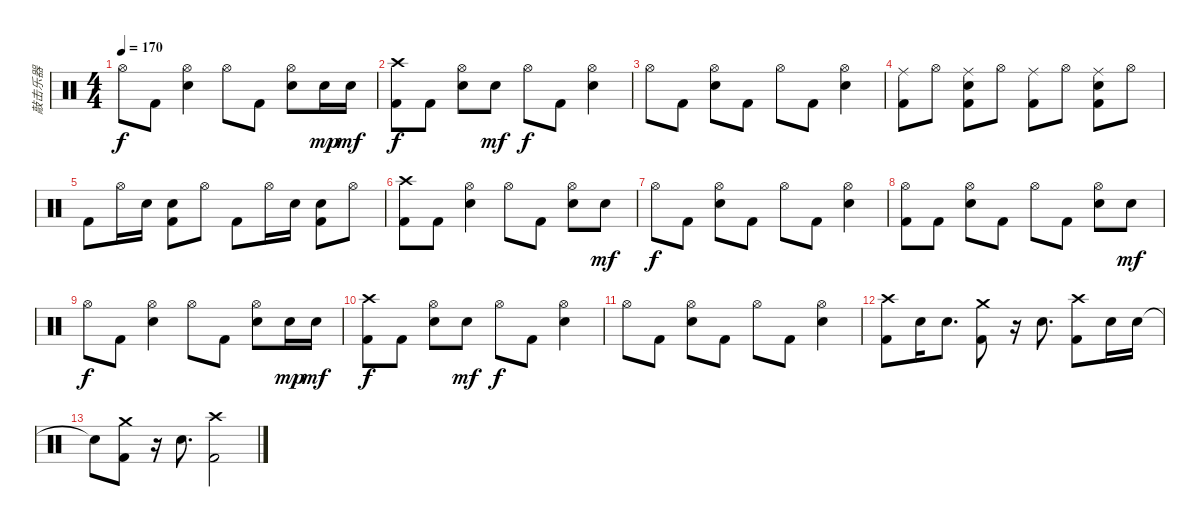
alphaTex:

\track ("敲击乐器" "敲击乐器") {instrument percussion}
\staff {score}
\articulation defaults
\ts (4 4)
\tempo 170
\clef neutral
\ks c "Hi-Hat (open)".8{dy f} "Kick (hit) 2".8
("Hi-Hat (open)" "Snare (hit) 2").4 "Hi-Hat (open)".8 "Kick (hit) 2".8 ("Hi-Hat (open)" "Snare (hit) 2").8 "Snare (hit) 2".16{dy mp} "Snare (hit) 2".16{dy mf} |
("Crash high (hit)" "Kick (hit) 2").8{dy f} "Kick (hit) 2".8 ("Hi-Hat (open)" "Snare (hit) 2").8 "Snare (hit) 2".8{dy mf} "Hi-Hat (open)".8{dy f} "Kick (hit) 2".8 ("Hi-Hat (open)" "Snare (hit) 2").4 |
"Hi-Hat (open)".8 "Kick (hit) 2".8 ("Hi-Hat (open)" "Snare (hit) 2").8 "Kick (hit) 2".8 "Hi-Hat (open)".8 "Kick (hit) 2".8 ("Hi-Hat (open)" "Snare (hit) 2").4 |
("Ride (middle)" "Kick (hit) 2").8 "Hi-Hat (open)".8 ("Ride (middle)" "Snare (hit) 2" "Kick (hit) 2").8 "Hi-Hat (open)".8 ("Ride (middle)" "Kick (hit) 2").8 "Hi-Hat (open)".8 ("Ride (middle)" "Snare (hit) 2" "Kick (hit) 2").8 "Hi-Hat (open)".8 |
"Kick (hit) 2".8 "Hi-Hat (open)".16 "Snare (hit) 2".16 ("Snare (hit) 2" "Kick (hit) 2").8 "Hi-Hat (open)".8 "Kick (hit) 2".8 "Hi-Hat (open)".16 "Snare (hit) 2".16 ("Snare (hit) 2" "Kick (hit) 2").8 "Hi-Hat (open)".8 |
("Crash high (hit)" "Kick (hit) 2").8 "Kick (hit) 2".8 ("Hi-Hat (open)" "Snare (hit) 2").4 "Hi-Hat (open)".8 "Kick (hit) 2".8 ("Hi-Hat (open)" "Snare (hit) 2").8 "Snare (hit) 2".8{dy mf} |
"Hi-Hat (open)".8{dy f} "Kick (hit) 2".8 ("Hi-Hat (open)" "Snare (hit) 2").8 "Kick (hit) 2".8 "Hi-Hat (open)".8 "Kick (hit) 2".8 ("Hi-Hat (open)" "Snare (hit) 2").4 |
("Hi-Hat (open)" "Kick (hit) 2").8 "Kick (hit) 2".8 ("Hi-Hat (open)" "Snare (hit) 2").8 "Kick (hit) 2".8 "Hi-Hat (open)".8 "Kick (hit) 2".8 ("Hi-Hat (open)" "Snare (hit) 2").8 "Snare (hit) 2".8{dy mf} |
"Hi-Hat (open)".8{dy f} "Kick (hit) 2".8 ("Hi-Hat (open)" "Snare (hit) 2").4 "Hi-Hat (open)".8 "Kick (hit) 2".8 ("Hi-Hat (open)" "Snare (hit) 2").8 "Snare (hit) 2".16{dy mp} "Snare (hit) 2".16{dy mf} |
("Crash high (hit)" "Kick (hit) 2").8{dy f} "Kick (hit) 2".8 ("Hi-Hat (open)" "Snare (hit) 2").8 "Snare (hit) 2".8{dy mf} "Hi-Hat (open)".8{dy f} "Kick (hit) 2".8 ("Hi-Hat (open)" "Snare (hit) 2").4 |
"Hi-Hat (open)".8 "Kick (hit) 2".8 ("Hi-Hat (open)" "Snare (hit) 2").8 "Kick (hit) 2".8 "Hi-Hat (open)".8 "Kick (hit) 2".8 ("Hi-Hat (open)" "Snare (hit) 2").4 |
("Crash high (hit)" "Kick (hit) 2").8 "Snare (hit) 2".16 "Snare (hit) 2".8{d} ("Crash medium (hit)" "Kick (hit) 2").8 r.16 "Snare (hit) 2".8{d} ("Crash high (hit)" "Kick (hit) 2").8 "Snare (hit) 2".16 "Snare (hit) 2".16 |
"Snare (hit)"{t}.8 ("Crash medium (hit)" "Kick (hit) 2").8 r.16 "Snare (hit) 2".8{d} ("Crash high (hit)" "Kick (hit) 2").2
